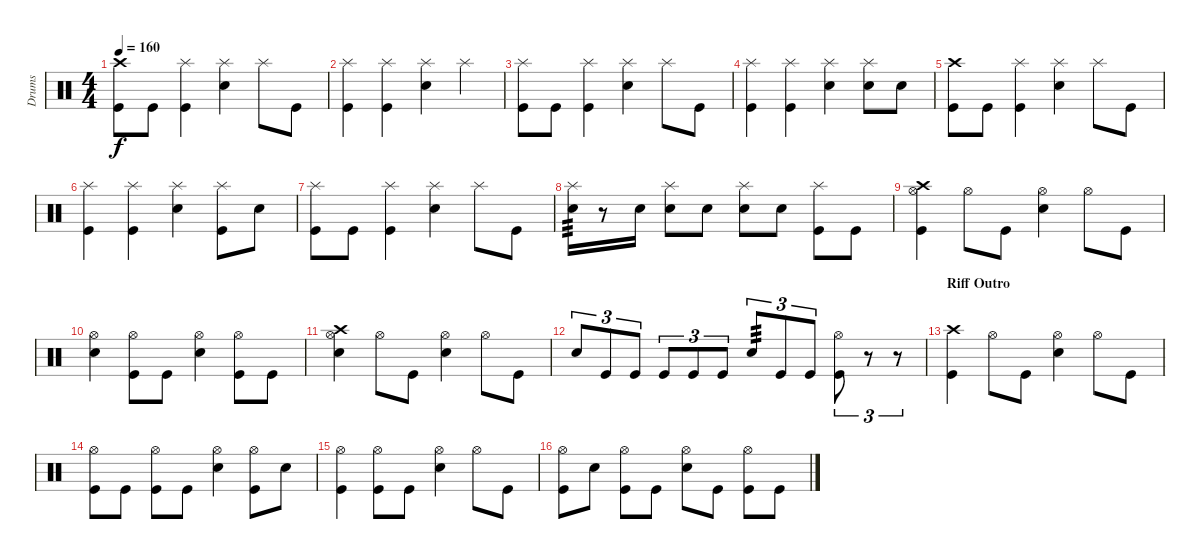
\track ("Drums" "Drums") {instrument percussion}
\staff {score}
\articulation defaults
\ts (4 4)
\tempo 160
\clef neutral
\ks c
("Crash high (hit)" "Kick (hit)").8{dy f} "Kick (hit)".8 ("Splash (hit)" "Kick (hit)").4 ("Splash (hit)" "Snare (hit) 2").4 "Splash (hit)".8 "Kick (hit)".8 |
("Splash (hit)" "Kick (hit)").4 ("Splash (hit)" "Kick (hit)").4 ("Splash (hit)" "Snare (hit) 2").4 "Splash (hit)".4 |
("Splash (hit)" "Kick (hit)").8 "Kick (hit)".8 ("Splash (hit)" "Kick (hit)").4 ("Splash (hit)" "Snare (hit) 2").4 "Splash (hit)".8 "Kick (hit)".8 |
("Splash (hit)" "Kick (hit)").4 ("Splash (hit)" "Kick (hit)").4 ("Splash (hit)" "Snare (hit) 2").4 ("Splash (hit)" "Snare (hit) 2").8 "Snare (hit) 2".8 |
("Crash high (hit)" "Kick (hit)").8 "Kick (hit)".8 ("Splash (hit)" "Kick (hit)").4 ("Splash (hit)" "Snare (hit) 2").4 "Splash (hit)".8 "Kick (hit)".8 |
("Splash (hit)" "Kick (hit)").4 ("Splash (hit)" "Kick (hit)").4 ("Splash (hit)" "Snare (hit) 2").4 ("Splash (hit)" "Kick (hit)").8 "Snare (hit) 2".8 |
("Splash (hit)" "Kick (hit)").8 "Kick (hit)".8 ("Splash (hit)" "Kick (hit)").4 ("Splash (hit)" "Snare (hit) 2").4 "Splash (hit)".8 "Kick (hit)".8 |
("Splash (hit)" "Snare (hit) 2").16{tp 3} r.8 "Snare (hit) 2".16 ("Splash (hit)" "Snare (hit) 2").8 "Snare (hit) 2".8 ("Splash (hit)" "Snare (hit) 2").8 "Snare (hit) 2".8 ("Splash (hit)" "Kick (hit)").8 "Kick (hit)".8 |
("Hi-Hat (open)" "Crash high (hit)" "Kick (hit)").4 "Hi-Hat (open)".8 "Kick (hit)".8 ("Hi-Hat (open)" "Snare (hit) 2").4 "Hi-Hat (open)".8 "Kick (hit)".8 |
("Hi-Hat (open)" "Snare (hit) 2").4 ("Hi-Hat (open)" "Kick (hit)").8 "Kick (hit)".8 ("Hi-Hat (open)" "Snare (hit) 2").4 ("Hi-Hat (open)" "Kick (hit)").8 "Kick (hit)".8 |
("Hi-Hat (open)" "Crash high (hit)" "Snare (hit) 2").4 "Hi-Hat (open)".8 "Kick (hit)".8 ("Hi-Hat (open)" "Snare (hit) 2").4 "Hi-Hat (open)".8 "Kick (hit)".8 |
"Snare (hit) 2".8{tu (3 2)} "Kick (hit)".8{tu (3 2)} "Kick (hit)".8{tu (3 2)} "Kick (hit)".8{tu (3 2)} "Kick (hit)".8{tu (3 2)} "Kick (hit)".8{tu (3 2)} "Snare (hit) 2".8{tu (3 2) tp 3} "Kick (hit)".8{tu (3 2)} "Kick (hit)".8{tu (3 2)} ("Hi-Hat (open)" "Kick (hit)").8{tu (3 2)} r.8{tu (3 2)} r.8{tu (3 2)} |
\section ("" "Riff Outro")
("Crash high (hit)" "Kick (hit)").4 "Hi-Hat (open)".8 "Kick (hit)".8 ("Hi-Hat (open)" "Snare (hit) 2").4 "Hi-Hat (open)".8 "Kick (hit)".8 |
("Hi-Hat (open)" "Kick (hit)").8 "Kick (hit)".8 ("Hi-Hat (open)" "Kick (hit)").8 "Kick (hit)".8 ("Hi-Hat (open)" "Snare (hit) 2").4 ("Hi-Hat (open)" "Kick (hit)").8 "Snare (hit) 2".8 |
("Hi-Hat (open)" "Kick (hit)").4 ("Hi-Hat (open)" "Kick (hit)").8 "Kick (hit)".8 ("Hi-Hat (open)" "Snare (hit) 2").4 "Hi-Hat (open)".8 "Kick (hit)".8 |
("Hi-Hat (open)" "Kick (hit)").8 "Snare (hit) 2".8 ("Hi-Hat (open)" "Kick (hit)").8 "Kick (hit)".8 ("Hi-Hat (open)" "Snare (hit) 2").8 "Kick (hit)".8 ("Hi-Hat (open)" "Kick (hit)").8 "Kick (hit)".8
